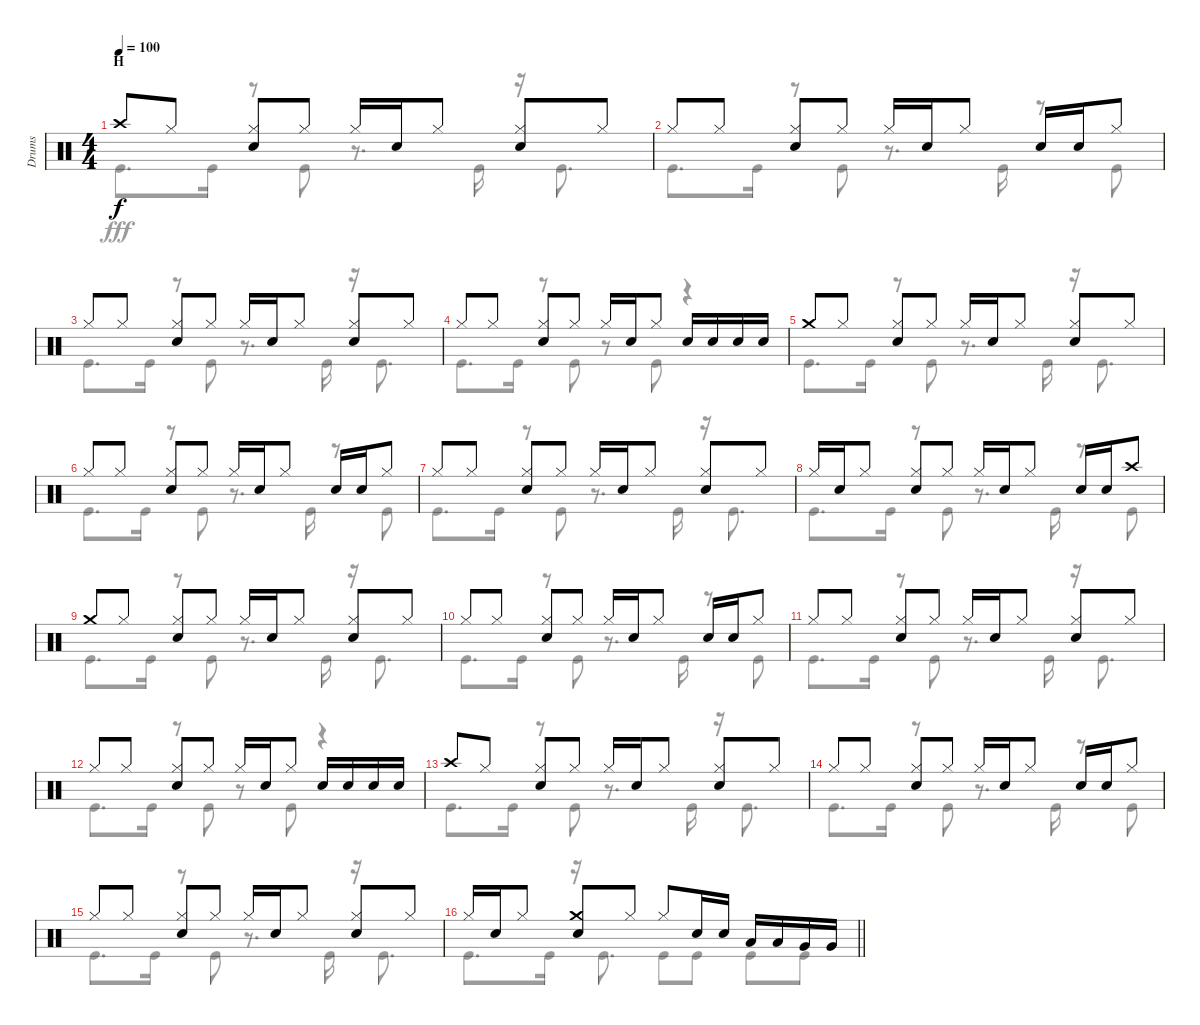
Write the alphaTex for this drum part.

\track ("Drums" "Drums") {instrument percussion}
\staff {score}
\articulation defaults
\voice
\ts (4 4)
\section ("" "H")
\tempo 100
\clef neutral
\ks c "Crash high (hit)".8{dy f} "Hi-Hat (closed)".8
("Hi-Hat (closed)" "Snare (hit) 2").8 "Hi-Hat (closed)".8 "Hi-Hat (closed)".16 "Snare (hit) 2".16 "Hi-Hat (closed)".8 ("Hi-Hat (closed)" "Snare (hit) 2").8 "Hi-Hat (closed)".8 |
"Hi-Hat (closed)".8 "Hi-Hat (closed)".8 ("Hi-Hat (closed)" "Snare (hit) 2").8 "Hi-Hat (closed)".8 "Hi-Hat (closed)".16 "Snare (hit) 2".16 "Hi-Hat (closed)".8 "Snare (hit) 2".16 "Snare (hit) 2".16 "Hi-Hat (closed)".8 |
"Hi-Hat (closed)".8 "Hi-Hat (closed)".8 ("Hi-Hat (closed)" "Snare (hit) 2").8 "Hi-Hat (closed)".8 "Hi-Hat (closed)".16 "Snare (hit) 2".16 "Hi-Hat (closed)".8 ("Hi-Hat (closed)" "Snare (hit) 2").8 "Hi-Hat (closed)".8 |
"Hi-Hat (closed)".8 "Hi-Hat (closed)".8 ("Hi-Hat (closed)" "Snare (hit) 2").8 "Hi-Hat (closed)".8 "Hi-Hat (closed)".16 "Snare (hit) 2".16 "Hi-Hat (closed)".8 "Snare (hit) 2".16 "Snare (hit) 2".16 "Snare (hit) 2".16 "Snare (hit) 2".16 |
"Crash medium (hit)".8 "Hi-Hat (closed)".8 ("Hi-Hat (closed)" "Snare (hit) 2").8 "Hi-Hat (closed)".8 "Hi-Hat (closed)".16 "Snare (hit) 2".16 "Hi-Hat (closed)".8 ("Hi-Hat (closed)" "Snare (hit) 2").8 "Hi-Hat (closed)".8 |
"Hi-Hat (closed)".8 "Hi-Hat (closed)".8 ("Hi-Hat (closed)" "Snare (hit) 2").8 "Hi-Hat (closed)".8 "Hi-Hat (closed)".16 "Snare (hit) 2".16 "Hi-Hat (closed)".8 "Snare (hit) 2".16 "Snare (hit) 2".16 "Hi-Hat (closed)".8 |
"Hi-Hat (closed)".8 "Hi-Hat (closed)".8 ("Hi-Hat (closed)" "Snare (hit) 2").8 "Hi-Hat (closed)".8 "Hi-Hat (closed)".16 "Snare (hit) 2".16 "Hi-Hat (closed)".8 ("Hi-Hat (closed)" "Snare (hit) 2").8 "Hi-Hat (closed)".8 |
"Hi-Hat (closed)".16 "Snare (hit) 2".16 "Hi-Hat (closed)".8 ("Hi-Hat (closed)" "Snare (hit) 2").8 "Hi-Hat (closed)".8 "Hi-Hat (closed)".16 "Snare (hit) 2".16 "Hi-Hat (closed)".8 "Snare (hit) 2".16 "Snare (hit) 2".16 "Crash high (hit)".8 |
"Crash medium (hit)".8 "Hi-Hat (closed)".8 ("Hi-Hat (closed)" "Snare (hit) 2").8 "Hi-Hat (closed)".8 "Hi-Hat (closed)".16 "Snare (hit) 2".16 "Hi-Hat (closed)".8 ("Hi-Hat (closed)" "Snare (hit) 2").8 "Hi-Hat (closed)".8 |
"Hi-Hat (closed)".8 "Hi-Hat (closed)".8 ("Hi-Hat (closed)" "Snare (hit) 2").8 "Hi-Hat (closed)".8 "Hi-Hat (closed)".16 "Snare (hit) 2".16 "Hi-Hat (closed)".8 "Snare (hit) 2".16 "Snare (hit) 2".16 "Hi-Hat (closed)".8 |
"Hi-Hat (closed)".8 "Hi-Hat (closed)".8 ("Hi-Hat (closed)" "Snare (hit) 2").8 "Hi-Hat (closed)".8 "Hi-Hat (closed)".16 "Snare (hit) 2".16 "Hi-Hat (closed)".8 ("Hi-Hat (closed)" "Snare (hit) 2").8 "Hi-Hat (closed)".8 |
"Hi-Hat (closed)".8 "Hi-Hat (closed)".8 ("Hi-Hat (closed)" "Snare (hit) 2").8 "Hi-Hat (closed)".8 "Hi-Hat (closed)".16 "Snare (hit) 2".16 "Hi-Hat (closed)".8 "Snare (hit) 2".16 "Snare (hit) 2".16 "Snare (hit) 2".16 "Snare (hit) 2".16 |
"Crash high (hit)".8 "Hi-Hat (closed)".8 ("Hi-Hat (closed)" "Snare (hit) 2").8 "Hi-Hat (closed)".8 "Hi-Hat (closed)".16 "Snare (hit) 2".16 "Hi-Hat (closed)".8 ("Hi-Hat (closed)" "Snare (hit) 2").8 "Hi-Hat (closed)".8 |
"Hi-Hat (closed)".8 "Hi-Hat (closed)".8 ("Hi-Hat (closed)" "Snare (hit) 2").8 "Hi-Hat (closed)".8 "Hi-Hat (closed)".16 "Snare (hit) 2".16 "Hi-Hat (closed)".8 "Snare (hit) 2".16 "Snare (hit) 2".16 "Hi-Hat (closed)".8 |
"Hi-Hat (closed)".8 "Hi-Hat (closed)".8 ("Hi-Hat (closed)" "Snare (hit) 2").8 "Hi-Hat (closed)".8 "Hi-Hat (closed)".16 "Snare (hit) 2".16 "Hi-Hat (closed)".8 ("Hi-Hat (closed)" "Snare (hit) 2").8 "Hi-Hat (closed)".8 |
\barLineRight lightlight "Hi-Hat (closed)".16 "Snare (hit) 2".16 "Hi-Hat (closed)".8
("Crash medium (hit)" "Snare (hit) 2").8 "Hi-Hat (closed)".8 "Hi-Hat (closed)".8 "Snare (hit) 2".16 "Snare (hit) 2".16 "Low Tom (hit)".16 "Low Tom (hit)".16 "Very Low Tom (hit)".16 "Very Low Tom (hit)".16
\voice
\clef neutral
\ottava regular
\simile none
\ks c "Kick (hit)".8{d dy fff} "Kick (hit)".16
r.8 "Kick (hit)".8 r.8{d} "Kick (hit)".16 r.16 "Kick (hit)".8{d} |
"Kick (hit)".8{d} "Kick (hit)".16 r.8 "Kick (hit)".8 r.8{d} "Kick (hit)".16 r.8 "Kick (hit)".8 |
"Kick (hit)".8{d} "Kick (hit)".16 r.8 "Kick (hit)".8 r.8{d} "Kick (hit)".16 r.16 "Kick (hit)".8{d} |
"Kick (hit)".8{d} "Kick (hit)".16 r.8 "Kick (hit)".8 r.8 "Kick (hit)".8 r.4 |
"Kick (hit)".8{d} "Kick (hit)".16 r.8 "Kick (hit)".8 r.8{d} "Kick (hit)".16 r.16 "Kick (hit)".8{d} |
"Kick (hit)".8{d} "Kick (hit)".16 r.8 "Kick (hit)".8 r.8{d} "Kick (hit)".16 r.8 "Kick (hit)".8 |
"Kick (hit)".8{d} "Kick (hit)".16 r.8 "Kick (hit)".8 r.8{d} "Kick (hit)".16 r.16 "Kick (hit)".8{d} |
"Kick (hit)".8{d} "Kick (hit)".16 r.8 "Kick (hit)".8 r.8{d} "Kick (hit)".16 r.8 "Kick (hit)".8 |
"Kick (hit)".8{d} "Kick (hit)".16 r.8 "Kick (hit)".8 r.8{d} "Kick (hit)".16 r.16 "Kick (hit)".8{d} |
"Kick (hit)".8{d} "Kick (hit)".16 r.8 "Kick (hit)".8 r.8{d} "Kick (hit)".16 r.8 "Kick (hit)".8 |
"Kick (hit)".8{d} "Kick (hit)".16 r.8 "Kick (hit)".8 r.8{d} "Kick (hit)".16 r.16 "Kick (hit)".8{d} |
"Kick (hit)".8{d} "Kick (hit)".16 r.8 "Kick (hit)".8 r.8 "Kick (hit)".8 r.4 |
"Kick (hit)".8{d} "Kick (hit)".16 r.8 "Kick (hit)".8 r.8{d} "Kick (hit)".16 r.16 "Kick (hit)".8{d} |
"Kick (hit)".8{d} "Kick (hit)".16 r.8 "Kick (hit)".8 r.8{d} "Kick (hit)".16 r.8 "Kick (hit)".8 |
"Kick (hit)".8{d} "Kick (hit)".16 r.8 "Kick (hit)".8 r.8{d} "Kick (hit)".16 r.16 "Kick (hit)".8{d} |
\barLineRight lightlight "Kick (hit)".8{d} "Kick (hit)".16
r.16 "Kick (hit)".8{d} "Kick (hit)".8 "Kick (hit)".8 "Kick (hit)".8 "Kick (hit)".8
